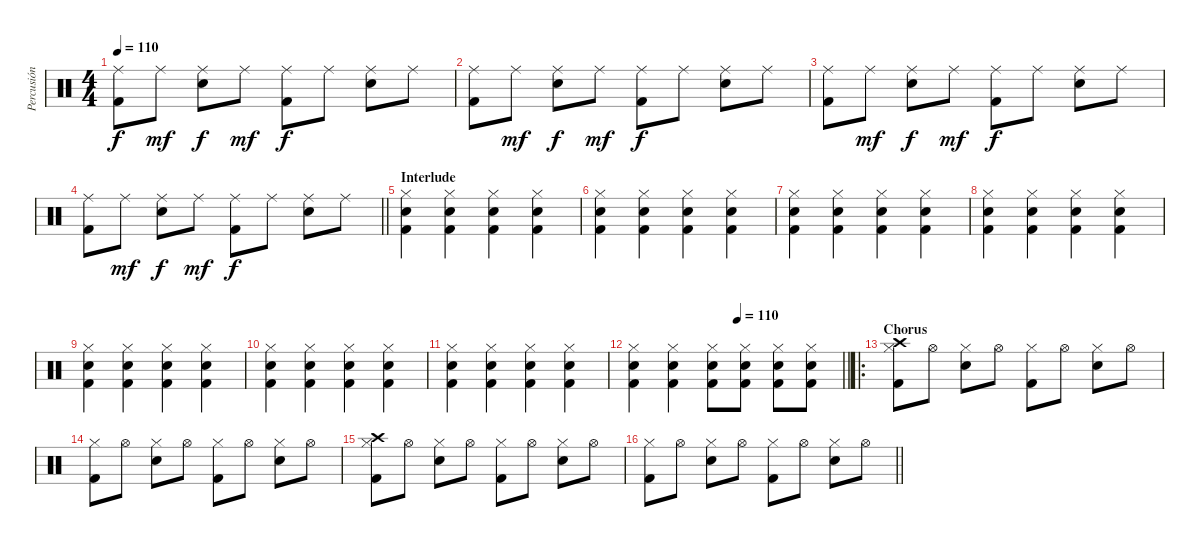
\track ("Percusión" "Percusión") {instrument percussion}
\staff {score}
\articulation defaults
\ts (4 4)
\tempo 110
\clef neutral
\ks c
("Kick (hit) 2" "Ride (middle)").8{dy f} "Ride (middle)".8{dy mf} ("Snare (hit) 2" "Ride (middle)").8{dy f} "Ride (middle)".8{dy mf} ("Kick (hit) 2" "Ride (middle)").8{dy f} "Ride (middle)".8 ("Snare (hit) 2" "Ride (middle)").8 "Ride (middle)".8 |
("Kick (hit) 2" "Ride (middle)").8 "Ride (middle)".8{dy mf} ("Snare (hit) 2" "Ride (middle)").8{dy f} "Ride (middle)".8{dy mf} ("Kick (hit) 2" "Ride (middle)").8{dy f} "Ride (middle)".8 ("Snare (hit) 2" "Ride (middle)").8 "Ride (middle)".8 |
("Kick (hit) 2" "Ride (middle)").8 "Ride (middle)".8{dy mf} ("Snare (hit) 2" "Ride (middle)").8{dy f} "Ride (middle)".8{dy mf} ("Kick (hit) 2" "Ride (middle)").8{dy f} "Ride (middle)".8 ("Snare (hit) 2" "Ride (middle)").8 "Ride (middle)".8 |
\barLineRight lightlight
("Kick (hit) 2" "Ride (middle)").8 "Ride (middle)".8{dy mf} ("Snare (hit) 2" "Ride (middle)").8{dy f} "Ride (middle)".8{dy mf} ("Kick (hit) 2" "Ride (middle)").8{dy f} "Ride (middle)".8 ("Snare (hit) 2" "Ride (middle)").8 "Ride (middle)".8 |
\section ("" "Interlude")
("Snare (hit) 2" "Kick (hit) 2" "Hi-Hat (closed)").4 ("Snare (hit) 2" "Kick (hit) 2" "Hi-Hat (closed)").4 ("Snare (hit) 2" "Kick (hit) 2" "Hi-Hat (closed)").4 ("Snare (hit) 2" "Kick (hit) 2" "Hi-Hat (closed)").4 |
("Snare (hit) 2" "Kick (hit) 2" "Hi-Hat (closed)").4 ("Snare (hit) 2" "Kick (hit) 2" "Hi-Hat (closed)").4 ("Snare (hit) 2" "Kick (hit) 2" "Hi-Hat (closed)").4 ("Snare (hit) 2" "Kick (hit) 2" "Hi-Hat (closed)").4 |
("Snare (hit) 2" "Kick (hit) 2" "Hi-Hat (closed)").4 ("Snare (hit) 2" "Kick (hit) 2" "Hi-Hat (closed)").4 ("Snare (hit) 2" "Kick (hit) 2" "Hi-Hat (closed)").4 ("Snare (hit) 2" "Kick (hit) 2" "Hi-Hat (closed)").4 |
("Snare (hit) 2" "Kick (hit) 2" "Hi-Hat (closed)").4 ("Snare (hit) 2" "Kick (hit) 2" "Hi-Hat (closed)").4 ("Snare (hit) 2" "Kick (hit) 2" "Hi-Hat (closed)").4 ("Snare (hit) 2" "Kick (hit) 2" "Hi-Hat (closed)").4 |
("Snare (hit) 2" "Kick (hit) 2" "Hi-Hat (closed)").4 ("Snare (hit) 2" "Kick (hit) 2" "Hi-Hat (closed)").4 ("Snare (hit) 2" "Kick (hit) 2" "Hi-Hat (closed)").4 ("Snare (hit) 2" "Kick (hit) 2" "Hi-Hat (closed)").4 |
("Snare (hit) 2" "Kick (hit) 2" "Hi-Hat (closed)").4 ("Snare (hit) 2" "Kick (hit) 2" "Hi-Hat (closed)").4 ("Snare (hit) 2" "Kick (hit) 2" "Hi-Hat (closed)").4 ("Snare (hit) 2" "Kick (hit) 2" "Hi-Hat (closed)").4 |
("Snare (hit) 2" "Kick (hit) 2" "Hi-Hat (closed)").4 ("Snare (hit) 2" "Kick (hit) 2" "Hi-Hat (closed)").4 ("Snare (hit) 2" "Kick (hit) 2" "Hi-Hat (closed)").4 ("Snare (hit) 2" "Kick (hit) 2" "Hi-Hat (closed)").4 |
\tempo (110 0.5)
\barLineRight lightlight
("Snare (hit) 2" "Kick (hit) 2" "Hi-Hat (closed)").4 ("Snare (hit) 2" "Kick (hit) 2" "Hi-Hat (closed)").4 ("Snare (hit) 2" "Kick (hit) 2" "Hi-Hat (closed)").8 ("Snare (hit) 2" "Kick (hit) 2" "Hi-Hat (closed)").8 ("Snare (hit) 2" "Kick (hit) 2" "Hi-Hat (closed)").8 ("Snare (hit) 2" "Kick (hit) 2" "Hi-Hat (closed)").8 |
\ro
\section ("" "Chorus")
("Crash high (hit)" "Kick (hit) 2" "Hi-Hat (closed)").8 "Hi-Hat (open)".8 ("Snare (hit) 2" "Hi-Hat (closed)").8 "Hi-Hat (open)".8 ("Kick (hit) 2" "Hi-Hat (closed)").8 "Hi-Hat (open)".8 ("Snare (hit) 2" "Hi-Hat (closed)").8 "Hi-Hat (open)".8 |
("Kick (hit) 2" "Hi-Hat (closed)").8 "Hi-Hat (open)".8 ("Snare (hit) 2" "Hi-Hat (closed)").8 "Hi-Hat (open)".8 ("Kick (hit) 2" "Hi-Hat (closed)").8 "Hi-Hat (open)".8 ("Snare (hit) 2" "Hi-Hat (closed)").8 "Hi-Hat (open)".8 |
("Crash high (hit)" "Kick (hit) 2" "Hi-Hat (closed)").8 "Hi-Hat (open)".8 ("Snare (hit) 2" "Hi-Hat (closed)").8 "Hi-Hat (open)".8 ("Kick (hit) 2" "Hi-Hat (closed)").8 "Hi-Hat (open)".8 ("Snare (hit) 2" "Hi-Hat (closed)").8 "Hi-Hat (open)".8 |
\barLineRight lightlight
("Kick (hit) 2" "Hi-Hat (closed)").8 "Hi-Hat (open)".8 ("Snare (hit) 2" "Hi-Hat (closed)").8 "Hi-Hat (open)".8 ("Kick (hit) 2" "Hi-Hat (closed)").8 "Hi-Hat (open)".8 ("Snare (hit) 2" "Hi-Hat (closed)").8 "Hi-Hat (open)".8
